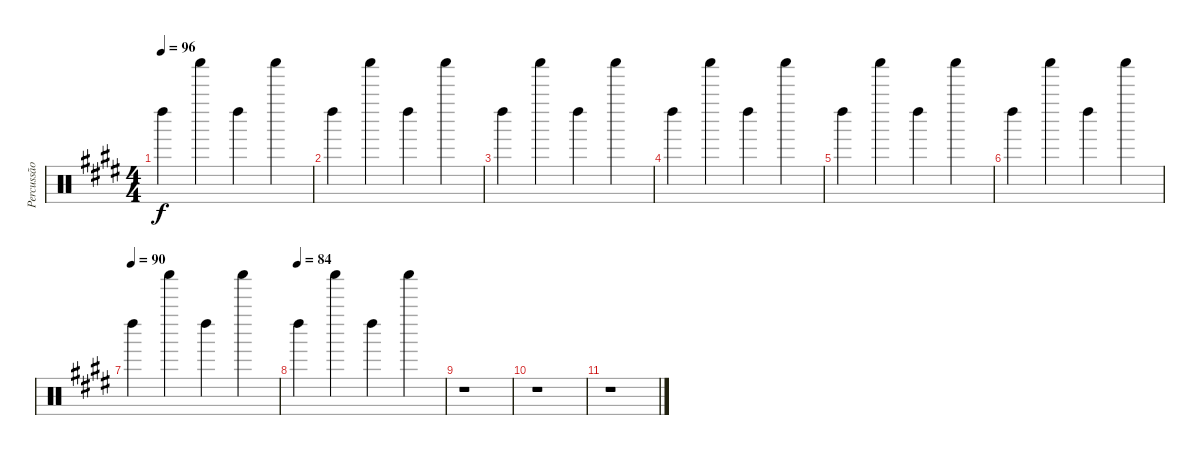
\track ("Percussão" "Percussão") {instrument percussion}
\staff {score}
\articulation defaults
\ts (4 4)
\tempo 96
\clef neutral
\ks e "Left Maraca (hit)".4{dy f} "Shaker (hit)".4 "Left Maraca (hit)".4 "Shaker (hit)".4
|
"Left Maraca (hit)".4 "Shaker (hit)".4 "Left Maraca (hit)".4 "Shaker (hit)".4 |
"Left Maraca (hit)".4 "Shaker (hit)".4 "Left Maraca (hit)".4 "Shaker (hit)".4 |
"Left Maraca (hit)".4 "Shaker (hit)".4 "Left Maraca (hit)".4 "Shaker (hit)".4 |
"Left Maraca (hit)".4 "Shaker (hit)".4 "Left Maraca (hit)".4 "Shaker (hit)".4 |
"Left Maraca (hit)".4 "Shaker (hit)".4 "Left Maraca (hit)".4 "Shaker (hit)".4 |
\tempo (90)
"Left Maraca (hit)".4 "Shaker (hit)".4 "Left Maraca (hit)".4 "Shaker (hit)".4 |
\tempo (84)
"Left Maraca (hit)".4 "Shaker (hit)".4 "Left Maraca (hit)".4 "Shaker (hit)".4 |
r.1 |
r.1 |
r.1
